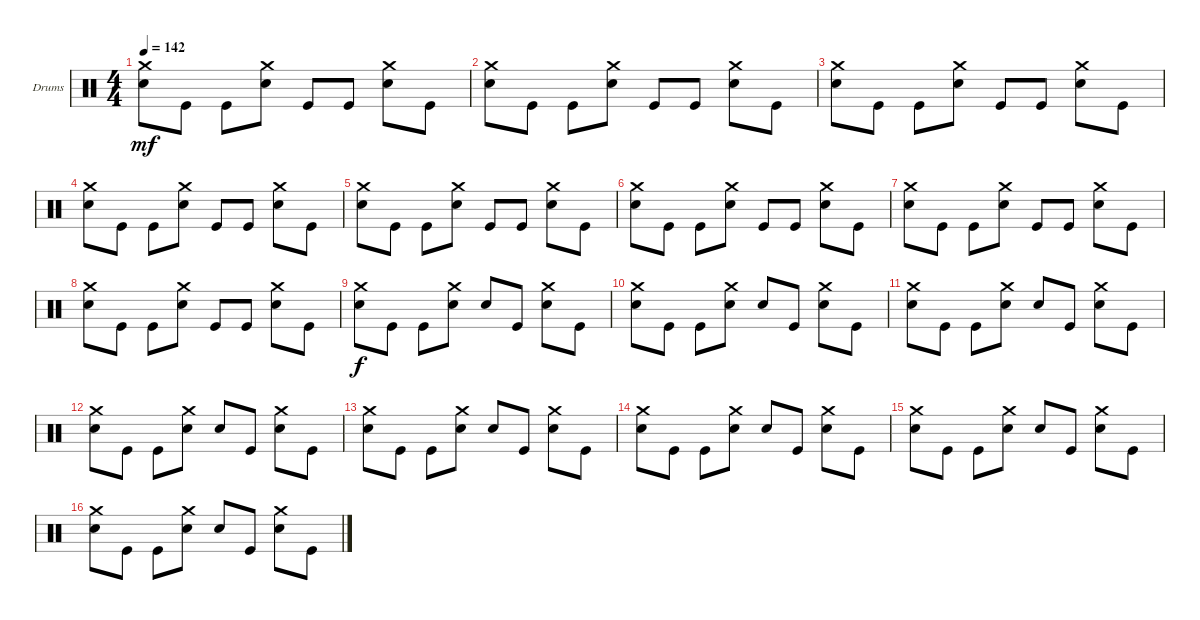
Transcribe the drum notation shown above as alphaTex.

\defaultSystemsLayout 4
\bracketExtendMode groupsimilarinstruments
\firstSystemTrackNameOrientation horizontal
\otherSystemsTrackNameOrientation horizontal
\track ("Drumkit" "Drums") {instrument percussion}
\staff {score}
\articulation defaults
\ts (4 4)
\tempo 142
\clef neutral
\scale
0.333333
\ks c
("Snare (hit) 2" "Crash medium (hit)").8{dy mf} "Kick (hit)".8 "Kick (hit)".8 ("Snare (hit) 2" "Crash medium (hit)").8 "Kick (hit)".8 "Kick (hit)".8 ("Snare (hit) 2" "Crash medium (hit)").8 "Kick (hit)".8 |
\scale
0.333333 ("Snare (hit) 2" "Crash medium (hit)").8 "Kick (hit)".8 "Kick (hit)".8 ("Snare (hit) 2" "Crash medium (hit)").8 "Kick (hit)".8 "Kick (hit)".8 ("Snare (hit) 2" "Crash medium (hit)").8 "Kick (hit)".8 |
\scale
0.333333 ("Snare (hit) 2" "Crash medium (hit)").8 "Kick (hit)".8 "Kick (hit)".8 ("Snare (hit) 2" "Crash medium (hit)").8 "Kick (hit)".8 "Kick (hit)".8 ("Snare (hit) 2" "Crash medium (hit)").8 "Kick (hit)".8 |
\scale
0.333333 ("Snare (hit) 2" "Crash medium (hit)").8 "Kick (hit)".8 "Kick (hit)".8 ("Snare (hit) 2" "Crash medium (hit)").8 "Kick (hit)".8 "Kick (hit)".8 ("Snare (hit) 2" "Crash medium (hit)").8 "Kick (hit)".8 |
\scale
0.333333 ("Snare (hit) 2" "Crash medium (hit)").8 "Kick (hit)".8 "Kick (hit)".8 ("Snare (hit) 2" "Crash medium (hit)").8 "Kick (hit)".8 "Kick (hit)".8 ("Snare (hit) 2" "Crash medium (hit)").8 "Kick (hit)".8 |
\scale
0.333333 ("Snare (hit) 2" "Crash medium (hit)").8 "Kick (hit)".8 "Kick (hit)".8 ("Snare (hit) 2" "Crash medium (hit)").8 "Kick (hit)".8 "Kick (hit)".8 ("Snare (hit) 2" "Crash medium (hit)").8 "Kick (hit)".8 |
("Snare (hit) 2" "Crash medium (hit)").8 "Kick (hit)".8 "Kick (hit)".8 ("Snare (hit) 2" "Crash medium (hit)").8 "Kick (hit)".8 "Kick (hit)".8 ("Snare (hit) 2" "Crash medium (hit)").8 "Kick (hit)".8 |
("Snare (hit) 2" "Crash medium (hit)").8 "Kick (hit)".8 "Kick (hit)".8 ("Snare (hit) 2" "Crash medium (hit)").8 "Kick (hit)".8 "Kick (hit)".8 ("Snare (hit) 2" "Crash medium (hit)").8 "Kick (hit)".8 |
("Snare (hit) 2" "Crash medium (hit)").8{dy f} "Kick (hit)".8 "Kick (hit)".8 ("Snare (hit) 2" "Crash medium (hit)").8 "Snare (hit) 2".8 "Kick (hit)".8 ("Snare (hit) 2" "Crash medium (hit)").8 "Kick (hit)".8 |
("Snare (hit) 2" "Crash medium (hit)").8 "Kick (hit)".8 "Kick (hit)".8 ("Snare (hit) 2" "Crash medium (hit)").8 "Snare (hit) 2".8 "Kick (hit)".8 ("Snare (hit) 2" "Crash medium (hit)").8 "Kick (hit)".8 |
("Snare (hit) 2" "Crash medium (hit)").8 "Kick (hit)".8 "Kick (hit)".8 ("Snare (hit) 2" "Crash medium (hit)").8 "Snare (hit) 2".8 "Kick (hit)".8 ("Snare (hit) 2" "Crash medium (hit)").8 "Kick (hit)".8 |
("Snare (hit) 2" "Crash medium (hit)").8 "Kick (hit)".8 "Kick (hit)".8 ("Snare (hit) 2" "Crash medium (hit)").8 "Snare (hit) 2".8 "Kick (hit)".8 ("Snare (hit) 2" "Crash medium (hit)").8 "Kick (hit)".8 |
("Snare (hit) 2" "Crash medium (hit)").8 "Kick (hit)".8 "Kick (hit)".8 ("Snare (hit) 2" "Crash medium (hit)").8 "Snare (hit) 2".8 "Kick (hit)".8 ("Snare (hit) 2" "Crash medium (hit)").8 "Kick (hit)".8 |
("Snare (hit) 2" "Crash medium (hit)").8 "Kick (hit)".8 "Kick (hit)".8 ("Snare (hit) 2" "Crash medium (hit)").8 "Snare (hit) 2".8 "Kick (hit)".8 ("Snare (hit) 2" "Crash medium (hit)").8 "Kick (hit)".8 |
("Snare (hit) 2" "Crash medium (hit)").8 "Kick (hit)".8 "Kick (hit)".8 ("Snare (hit) 2" "Crash medium (hit)").8 "Snare (hit) 2".8 "Kick (hit)".8 ("Snare (hit) 2" "Crash medium (hit)").8 "Kick (hit)".8 |
("Snare (hit) 2" "Crash medium (hit)").8 "Kick (hit)".8 "Kick (hit)".8 ("Snare (hit) 2" "Crash medium (hit)").8 "Snare (hit) 2".8 "Kick (hit)".8 ("Snare (hit) 2" "Crash medium (hit)").8 "Kick (hit)".8
